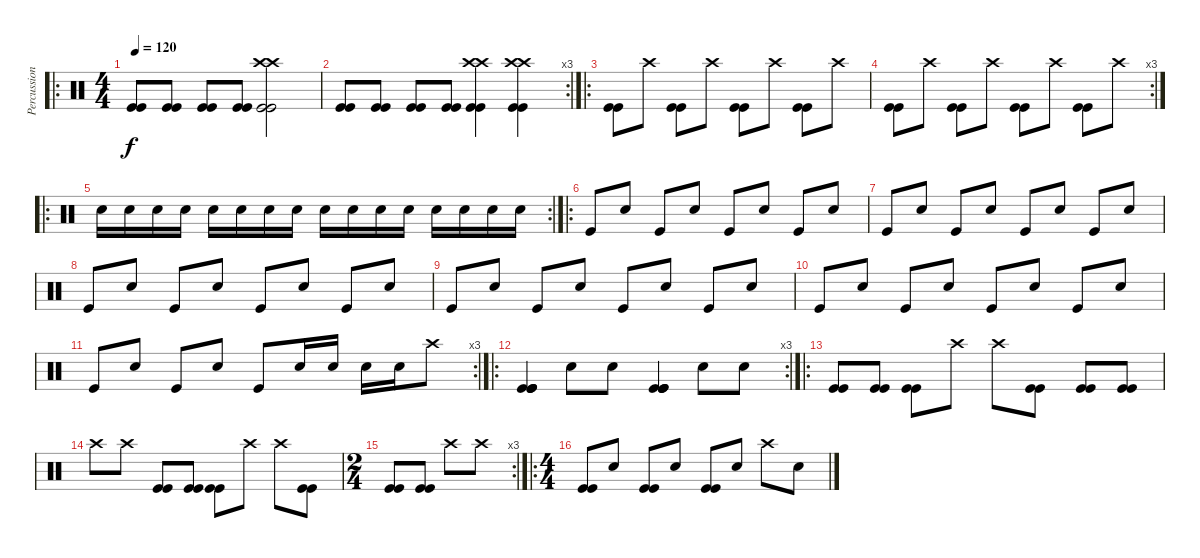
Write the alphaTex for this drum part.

\track ("Percussion" "Percussion") {instrument percussion}
\staff {score}
\articulation defaults
\ro
\ts (4 4)
\tempo 120
\clef neutral
\ks c
("Kick (hit)" "Kick (hit)").8{dy f} ("Kick (hit)" "Kick (hit)").8 ("Kick (hit)" "Kick (hit)").8 ("Kick (hit)" "Kick (hit)").8 ("Crash high (hit)" "Crash high (hit)" "Kick (hit)" "Kick (hit)").2 |
\rc 3
("Kick (hit)" "Kick (hit)").8 ("Kick (hit)" "Kick (hit)").8 ("Kick (hit)" "Kick (hit)").8 ("Kick (hit)" "Kick (hit)").8 ("Crash high (hit)" "Crash high (hit)" "Kick (hit)" "Kick (hit)").4 ("Crash high (hit)" "Crash high (hit)" "Kick (hit)" "Kick (hit)").4 |
\ro
("Kick (hit)" "Kick (hit)").8 "Crash high (hit)".8 ("Kick (hit)" "Kick (hit)").8 "Crash high (hit)".8 ("Kick (hit)" "Kick (hit)").8 "Crash high (hit)".8 ("Kick (hit)" "Kick (hit)").8 "Crash high (hit)".8 |
\rc 3
("Kick (hit)" "Kick (hit)").8 "Crash high (hit)".8 ("Kick (hit)" "Kick (hit)").8 "Crash high (hit)".8 ("Kick (hit)" "Kick (hit)").8 "Crash high (hit)".8 ("Kick (hit)" "Kick (hit)").8 "Crash high (hit)".8 |
\ro
\rc 2 "Snare (hit) 2".16 "Snare (hit) 2".16 "Snare (hit) 2".16 "Snare (hit) 2".16 "Snare (hit) 2".16 "Snare (hit) 2".16 "Snare (hit) 2".16 "Snare (hit) 2".16 "Snare (hit) 2".16 "Snare (hit) 2".16 "Snare (hit) 2".16 "Snare (hit) 2".16 "Snare (hit) 2".16 "Snare (hit) 2".16 "Snare (hit) 2".16 "Snare (hit) 2".16
|
\ro "Kick (hit)".8 "Snare (hit) 2".8 "Kick (hit)".8 "Snare (hit) 2".8 "Kick (hit)".8 "Snare (hit) 2".8 "Kick (hit)".8 "Snare (hit) 2".8
|
"Kick (hit)".8 "Snare (hit) 2".8 "Kick (hit)".8 "Snare (hit) 2".8 "Kick (hit)".8 "Snare (hit) 2".8 "Kick (hit)".8 "Snare (hit) 2".8 |
"Kick (hit)".8 "Snare (hit) 2".8 "Kick (hit)".8 "Snare (hit) 2".8 "Kick (hit)".8 "Snare (hit) 2".8 "Kick (hit)".8 "Snare (hit) 2".8 |
"Kick (hit)".8 "Snare (hit) 2".8 "Kick (hit)".8 "Snare (hit) 2".8 "Kick (hit)".8 "Snare (hit) 2".8 "Kick (hit)".8 "Snare (hit) 2".8 |
"Kick (hit)".8 "Snare (hit) 2".8 "Kick (hit)".8 "Snare (hit) 2".8 "Kick (hit)".8 "Snare (hit) 2".8 "Kick (hit)".8 "Snare (hit) 2".8 |
\rc 3 "Kick (hit)".8 "Snare (hit) 2".8 "Kick (hit)".8 "Snare (hit) 2".8 "Kick (hit)".8 "Snare (hit) 2".16 "Snare (hit) 2".16 "Snare (hit) 2".16 "Snare (hit) 2".16 "Crash high (hit)".8
|
\ro
\rc 3
("Kick (hit)" "Kick (hit)" "Kick (hit)" "Kick (hit)").4 "Snare (hit) 2".8 "Snare (hit) 2".8 ("Kick (hit)" "Kick (hit)" "Kick (hit)" "Kick (hit)").4 "Snare (hit) 2".8 "Snare (hit) 2".8 |
\ro
("Kick (hit)" "Kick (hit)").8 ("Kick (hit)" "Kick (hit)").8 ("Kick (hit)" "Kick (hit)").8 "Crash high (hit)".8 "Crash high (hit)".8 ("Kick (hit)" "Kick (hit)").8 ("Kick (hit)" "Kick (hit)").8 ("Kick (hit)" "Kick (hit)").8 |
"Crash high (hit)".8 "Crash high (hit)".8 ("Kick (hit)" "Kick (hit)").8 ("Kick (hit)" "Kick (hit)").8 ("Kick (hit)" "Kick (hit)").8 "Crash high (hit)".8 "Crash high (hit)".8 ("Kick (hit)" "Kick (hit)").8 |
\rc 3
\ts (2 4)
("Kick (hit)" "Kick (hit)").8 ("Kick (hit)" "Kick (hit)").8 "Crash high (hit)".8 "Crash high (hit)".8 |
\ro
\ts (4 4)
("Kick (hit)" "Kick (hit)").8 "Snare (hit) 2".8 ("Kick (hit)" "Kick (hit)").8 "Snare (hit) 2".8 ("Kick (hit)" "Kick (hit)").8 "Snare (hit) 2".8 "Crash high (hit)".8 "Snare (hit) 2".8
